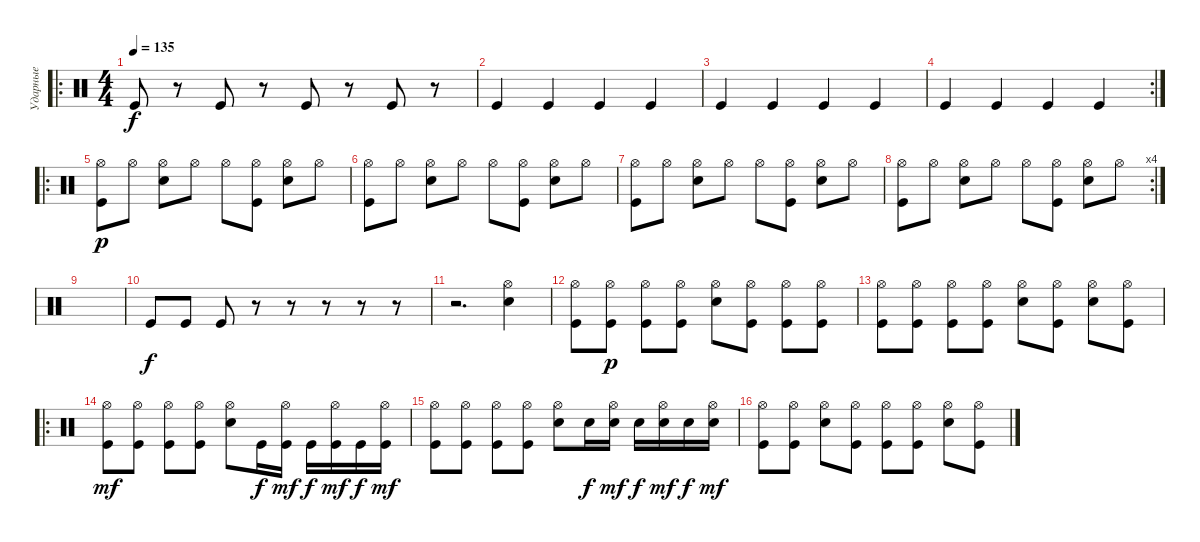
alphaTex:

\track ("Ударные" "Ударные") {instrument percussion}
\staff {score}
\articulation defaults
\ro
\ts (4 4)
\tempo 135
\clef neutral
\ks c "Kick (hit)".8{dy f}
r.8 "Kick (hit)".8 r.8 "Kick (hit)".8 r.8 "Kick (hit)".8 r.8 |
"Kick (hit)".4 "Kick (hit)".4 "Kick (hit)".4 "Kick (hit)".4 |
"Kick (hit)".4 "Kick (hit)".4 "Kick (hit)".4 "Kick (hit)".4 |
\rc 2 "Kick (hit)".4 "Kick (hit)".4 "Kick (hit)".4 "Kick (hit)".4
|
\ro
("Kick (hit)" "Hi-Hat (open)").8{dy p} "Hi-Hat (open)".8 ("Snare (hit) 2" "Hi-Hat (open)").8 "Hi-Hat (open)".8 "Hi-Hat (open)".8 ("Kick (hit)" "Hi-Hat (open)").8 ("Snare (hit) 2" "Hi-Hat (open)").8 "Hi-Hat (open)".8 |
("Kick (hit)" "Hi-Hat (open)").8 "Hi-Hat (open)".8 ("Snare (hit) 2" "Hi-Hat (open)").8 "Hi-Hat (open)".8 "Hi-Hat (open)".8 ("Kick (hit)" "Hi-Hat (open)").8 ("Snare (hit) 2" "Hi-Hat (open)").8 "Hi-Hat (open)".8 |
("Kick (hit)" "Hi-Hat (open)").8 "Hi-Hat (open)".8 ("Snare (hit) 2" "Hi-Hat (open)").8 "Hi-Hat (open)".8 "Hi-Hat (open)".8 ("Kick (hit)" "Hi-Hat (open)").8 ("Snare (hit) 2" "Hi-Hat (open)").8 "Hi-Hat (open)".8 |
\rc 4
("Kick (hit)" "Hi-Hat (open)").8 "Hi-Hat (open)".8 ("Snare (hit) 2" "Hi-Hat (open)").8 "Hi-Hat (open)".8 "Hi-Hat (open)".8 ("Kick (hit)" "Hi-Hat (open)").8 ("Snare (hit) 2" "Hi-Hat (open)").8 "Hi-Hat (open)".8 |
|
"Kick (hit)".8{dy f} "Kick (hit)".8 "Kick (hit)".8 r.8 r.8 r.8 r.8 r.8 |
r.2{d} ("Snare (hit) 2" "Hi-Hat (open)").4 |
("Kick (hit)" "Hi-Hat (open)").8 ("Kick (hit)" "Hi-Hat (open)").8{dy p} ("Kick (hit)" "Hi-Hat (open)").8 ("Kick (hit)" "Hi-Hat (open)").8 ("Snare (hit) 2" "Hi-Hat (open)").8 ("Kick (hit)" "Hi-Hat (open)").8 ("Kick (hit)" "Hi-Hat (open)").8 ("Kick (hit)" "Hi-Hat (open)").8 |
("Kick (hit)" "Hi-Hat (open)").8 ("Kick (hit)" "Hi-Hat (open)").8 ("Kick (hit)" "Hi-Hat (open)").8 ("Kick (hit)" "Hi-Hat (open)").8 ("Snare (hit) 2" "Hi-Hat (open)").8 ("Kick (hit)" "Hi-Hat (open)").8 ("Snare (hit) 2" "Hi-Hat (open)").8 ("Kick (hit)" "Hi-Hat (open)").8 |
\ro
("Kick (hit)" "Hi-Hat (open)").8{dy mf} ("Kick (hit)" "Hi-Hat (open)").8 ("Kick (hit)" "Hi-Hat (open)").8 ("Kick (hit)" "Hi-Hat (open)").8 ("Snare (hit) 2" "Hi-Hat (open)").8 "Kick (hit)".16{dy f} ("Kick (hit)" "Hi-Hat (open)").16{dy mf} "Kick (hit)".16{dy f} ("Kick (hit)" "Hi-Hat (open)").16{dy mf} "Kick (hit)".16{dy f} ("Kick (hit)" "Hi-Hat (open)").16{dy mf} |
("Kick (hit)" "Hi-Hat (open)").8 ("Kick (hit)" "Hi-Hat (open)").8 ("Kick (hit)" "Hi-Hat (open)").8 ("Kick (hit)" "Hi-Hat (open)").8 ("Snare (hit) 2" "Hi-Hat (open)").8 "Snare (hit) 2".16{dy f} ("Snare (hit) 2" "Hi-Hat (open)").16{dy mf} "Snare (hit) 2".16{dy f} ("Snare (hit) 2" "Hi-Hat (open)").16{dy mf} "Snare (hit) 2".16{dy f} ("Snare (hit) 2" "Hi-Hat (open)").16{dy mf} |
("Kick (hit)" "Hi-Hat (open)").8 ("Kick (hit)" "Hi-Hat (open)").8 ("Snare (hit) 2" "Hi-Hat (open)").8 ("Kick (hit)" "Hi-Hat (open)").8 ("Kick (hit)" "Hi-Hat (open)").8 ("Kick (hit)" "Hi-Hat (open)").8 ("Snare (hit) 2" "Hi-Hat (open)").8 ("Kick (hit)" "Hi-Hat (open)").8
